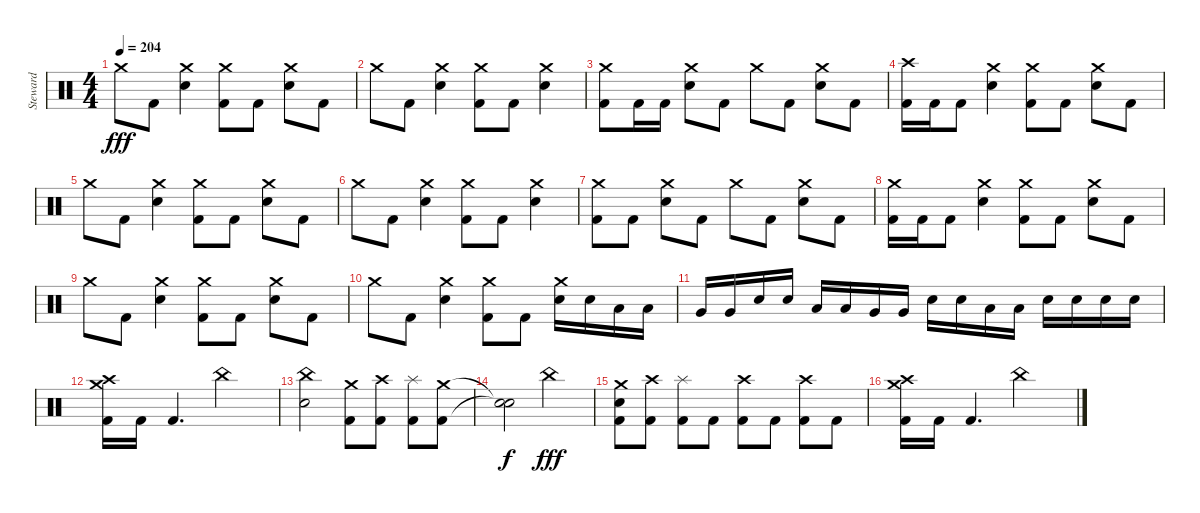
\track ("Steward" "Steward") {instrument percussion}
\staff {score}
\articulation defaults
\ts (4 4)
\tempo 204
\clef neutral
\ks c "Crash medium (hit)".8{dy fff} "Kick (hit) 2".8
("Crash medium (hit)" "Electric Snare (hit)").4 ("Crash medium (hit)" "Kick (hit) 2").8 "Kick (hit) 2".8 ("Crash medium (hit)" "Electric Snare (hit)").8 "Kick (hit) 2".8 |
"Crash medium (hit)".8 "Kick (hit) 2".8 ("Crash medium (hit)" "Electric Snare (hit)").4 ("Crash medium (hit)" "Kick (hit) 2").8 "Kick (hit) 2".8 ("Crash medium (hit)" "Electric Snare (hit)").4 |
("Crash medium (hit)" "Kick (hit) 2").8 "Kick (hit) 2".16 "Kick (hit) 2".16 ("Crash medium (hit)" "Electric Snare (hit)").8 "Kick (hit) 2".8 "Crash medium (hit)".8 "Kick (hit) 2".8 ("Crash medium (hit)" "Electric Snare (hit)").8 "Kick (hit) 2".8 |
("Crash high (hit)" "Kick (hit) 2").16 "Kick (hit) 2".16 "Kick (hit) 2".8 ("Crash medium (hit)" "Electric Snare (hit)").4 ("Crash medium (hit)" "Kick (hit) 2").8 "Kick (hit) 2".8 ("Crash medium (hit)" "Electric Snare (hit)").8 "Kick (hit) 2".8 |
"Crash medium (hit)".8 "Kick (hit) 2".8 ("Crash medium (hit)" "Electric Snare (hit)").4 ("Crash medium (hit)" "Kick (hit) 2").8 "Kick (hit) 2".8 ("Crash medium (hit)" "Electric Snare (hit)").8 "Kick (hit) 2".8 |
"Crash medium (hit)".8 "Kick (hit) 2".8 ("Crash medium (hit)" "Electric Snare (hit)").4 ("Crash medium (hit)" "Kick (hit) 2").8 "Kick (hit) 2".8 ("Crash medium (hit)" "Electric Snare (hit)").4 |
("Crash medium (hit)" "Kick (hit) 2").8 "Kick (hit) 2".8 ("Crash medium (hit)" "Electric Snare (hit)").8 "Kick (hit) 2".8 "Crash medium (hit)".8 "Kick (hit) 2".8 ("Crash medium (hit)" "Electric Snare (hit)").8 "Kick (hit) 2".8 |
("Crash medium (hit)" "Kick (hit) 2").16 "Kick (hit) 2".16 "Kick (hit) 2".8 ("Crash medium (hit)" "Electric Snare (hit)").4 ("Crash medium (hit)" "Kick (hit) 2").8 "Kick (hit) 2".8 ("Crash medium (hit)" "Electric Snare (hit)").8 "Kick (hit) 2".8 |
"Crash medium (hit)".8 "Kick (hit) 2".8 ("Crash medium (hit)" "Electric Snare (hit)").4 ("Crash medium (hit)" "Kick (hit) 2").8 "Kick (hit) 2".8 ("Crash medium (hit)" "Electric Snare (hit)").8 "Kick (hit) 2".8 |
"Crash medium (hit)".8 "Kick (hit) 2".8 ("Crash medium (hit)" "Electric Snare (hit)").4 ("Crash medium (hit)" "Kick (hit) 2").8 "Kick (hit) 2".8 ("Crash medium (hit)" "Electric Snare (hit)").16 "Electric Snare (hit)".16 "Low Tom (hit)".16 "Low Tom (hit)".16 |
"Very Low Tom (hit)".16 "Very Low Tom (hit)".16 "Electric Snare (hit)".16 "Electric Snare (hit)".16 "Low Tom (hit)".16 "Low Tom (hit)".16 "Very Low Tom (hit)".16 "Very Low Tom (hit)".16 "Electric Snare (hit)".16 "Electric Snare (hit)".16 "Low Tom (hit)".16 "Low Tom (hit)".16 "Electric Snare (hit)".16 "Electric Snare (hit)".16 "Electric Snare (hit)".16 "Electric Snare (hit)".16 |
("Crash medium (hit)" "Crash high (hit)" "Kick (hit) 2").16 "Kick (hit) 2".16 "Kick (hit) 2".4{d} "China (hit)".2 |
("China (hit)" "Electric Snare (hit)").2 ("Crash medium (hit)" "Kick (hit) 2").8 ("Crash high (hit)" "Kick (hit) 2").8 ("Splash (hit)" "Kick (hit) 2").8 ("Crash medium (hit)" "Kick (hit) 2").8 |
("Snare (hit)"{t} "Snare (hit)"{t}).2{dy f} "China (hit)".2{dy fff} |
("Crash medium (hit)" "Electric Snare (hit)" "Kick (hit) 2").8 ("Crash high (hit)" "Kick (hit) 2").8 ("Splash (hit)" "Kick (hit) 2").8 "Kick (hit) 2".8 ("Crash high (hit)" "Kick (hit) 2").8 "Kick (hit) 2".8 ("Crash high (hit)" "Kick (hit) 2").8 "Kick (hit) 2".8 |
("Crash medium (hit)" "Crash high (hit)" "Kick (hit) 2").16 "Kick (hit) 2".16 "Kick (hit) 2".4{d} "China (hit)".2
